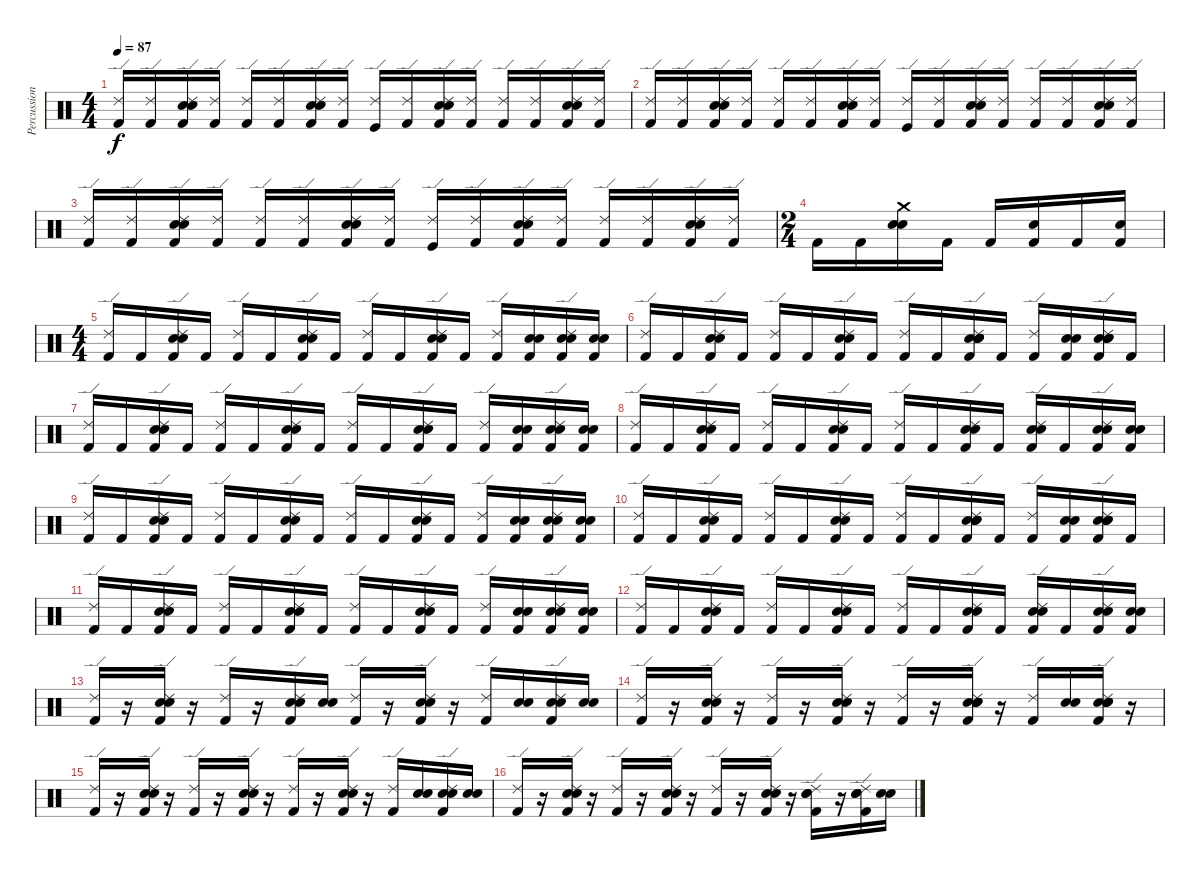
\track ("Percussion" "Percussion") {instrument percussion}
\staff {score}
\articulation defaults
\ts (4 4)
\tempo 87
\clef neutral
\ks c
("Ride (edge) 2" "Kick (hit) 2").16{dy f} ("Ride (edge) 2" "Kick (hit) 2").16 ("Ride (edge) 2" "Hand Clap (hit)" "Electric Snare (hit)" "Kick (hit) 2").16 ("Ride (edge) 2" "Kick (hit) 2").16 ("Ride (edge) 2" "Kick (hit) 2").16 ("Ride (edge) 2" "Kick (hit) 2").16 ("Ride (edge) 2" "Hand Clap (hit)" "Electric Snare (hit)" "Kick (hit) 2").16 ("Ride (edge) 2" "Kick (hit) 2").16 ("Ride (edge) 2" "Kick (hit)").16 ("Ride (edge) 2" "Kick (hit) 2").16 ("Ride (edge) 2" "Hand Clap (hit)" "Electric Snare (hit)" "Kick (hit) 2").16 ("Ride (edge) 2" "Kick (hit) 2").16 ("Ride (edge) 2" "Kick (hit) 2").16 ("Ride (edge) 2" "Kick (hit) 2").16 ("Ride (edge) 2" "Hand Clap (hit)" "Electric Snare (hit)" "Kick (hit) 2").16 ("Ride (edge) 2" "Kick (hit) 2").16 |
("Ride (edge) 2" "Kick (hit) 2").16 ("Ride (edge) 2" "Kick (hit) 2").16 ("Ride (edge) 2" "Hand Clap (hit)" "Electric Snare (hit)" "Kick (hit) 2").16 ("Ride (edge) 2" "Kick (hit) 2").16 ("Ride (edge) 2" "Kick (hit) 2").16 ("Ride (edge) 2" "Kick (hit) 2").16 ("Ride (edge) 2" "Hand Clap (hit)" "Electric Snare (hit)" "Kick (hit) 2").16 ("Ride (edge) 2" "Kick (hit) 2").16 ("Ride (edge) 2" "Kick (hit)").16 ("Ride (edge) 2" "Kick (hit) 2").16 ("Ride (edge) 2" "Hand Clap (hit)" "Electric Snare (hit)" "Kick (hit) 2").16 ("Ride (edge) 2" "Kick (hit) 2").16 ("Ride (edge) 2" "Kick (hit) 2").16 ("Ride (edge) 2" "Kick (hit) 2").16 ("Ride (edge) 2" "Hand Clap (hit)" "Electric Snare (hit)" "Kick (hit) 2").16 ("Ride (edge) 2" "Kick (hit) 2").16 |
("Ride (edge) 2" "Kick (hit) 2").16 ("Ride (edge) 2" "Kick (hit) 2").16 ("Ride (edge) 2" "Hand Clap (hit)" "Electric Snare (hit)" "Kick (hit) 2").16 ("Ride (edge) 2" "Kick (hit) 2").16 ("Ride (edge) 2" "Kick (hit) 2").16 ("Ride (edge) 2" "Kick (hit) 2").16 ("Ride (edge) 2" "Hand Clap (hit)" "Electric Snare (hit)" "Kick (hit) 2").16 ("Ride (edge) 2" "Kick (hit) 2").16 ("Ride (edge) 2" "Kick (hit)").16 ("Ride (edge) 2" "Kick (hit) 2").16 ("Ride (edge) 2" "Hand Clap (hit)" "Electric Snare (hit)" "Kick (hit) 2").16 ("Ride (edge) 2" "Kick (hit) 2").16 ("Ride (edge) 2" "Kick (hit) 2").16 ("Ride (edge) 2" "Kick (hit) 2").16 ("Ride (edge) 2" "Hand Clap (hit)" "Electric Snare (hit)" "Kick (hit) 2").16 ("Ride (edge) 2" "Kick (hit) 2").16 |
\ts (2 4)
"Kick (hit) 2".16 "Kick (hit) 2".16 ("Crash medium (hit)" "Hand Clap (hit)" "Electric Snare (hit)").16 "Kick (hit) 2".16 "Kick (hit) 2".16 ("Electric Snare (hit)" "Kick (hit) 2").16 "Kick (hit) 2".16 ("Electric Snare (hit)" "Kick (hit) 2").16 |
\ts (4 4)
("Ride (edge) 2" "Kick (hit) 2").16 "Kick (hit) 2".16 ("Ride (edge) 2" "Hand Clap (hit)" "Electric Snare (hit)" "Kick (hit) 2").16 "Kick (hit) 2".16 ("Ride (edge) 2" "Kick (hit) 2").16 "Kick (hit) 2".16 ("Ride (edge) 2" "Hand Clap (hit)" "Electric Snare (hit)" "Kick (hit) 2").16 "Kick (hit) 2".16 ("Ride (edge) 2" "Kick (hit) 2").16 "Kick (hit) 2".16 ("Ride (edge) 2" "Hand Clap (hit)" "Electric Snare (hit)" "Kick (hit) 2").16 "Kick (hit) 2".16 ("Ride (edge) 2" "Kick (hit) 2").16 ("Hand Clap (hit)" "Hand Clap (hit)" "Kick (hit) 2").16 ("Ride (edge) 2" "Hand Clap (hit)" "Electric Snare (hit)" "Kick (hit) 2").16 ("Hand Clap (hit)" "Hand Clap (hit)" "Kick (hit) 2").16 |
("Ride (edge) 2" "Kick (hit) 2").16 "Kick (hit) 2".16 ("Ride (edge) 2" "Hand Clap (hit)" "Electric Snare (hit)" "Kick (hit) 2").16 "Kick (hit) 2".16 ("Ride (edge) 2" "Kick (hit) 2").16 "Kick (hit) 2".16 ("Ride (edge) 2" "Hand Clap (hit)" "Electric Snare (hit)" "Kick (hit) 2").16 "Kick (hit) 2".16 ("Ride (edge) 2" "Kick (hit) 2").16 "Kick (hit) 2".16 ("Hand Clap (hit)" "Ride (edge) 2" "Hand Clap (hit)" "Hand Clap (hit)" "Electric Snare (hit)" "Kick (hit) 2").16 "Kick (hit) 2".16 ("Ride (edge) 2" "Kick (hit) 2").16 ("Hand Clap (hit)" "Hand Clap (hit)" "Kick (hit) 2").16 ("Hand Clap (hit)" "Ride (edge) 2" "Hand Clap (hit)" "Hand Clap (hit)" "Electric Snare (hit)" "Kick (hit) 2").16 "Kick (hit) 2".16 |
("Ride (edge) 2" "Kick (hit) 2").16 "Kick (hit) 2".16 ("Ride (edge) 2" "Hand Clap (hit)" "Electric Snare (hit)" "Kick (hit) 2").16 "Kick (hit) 2".16 ("Ride (edge) 2" "Kick (hit) 2").16 "Kick (hit) 2".16 ("Ride (edge) 2" "Hand Clap (hit)" "Electric Snare (hit)" "Kick (hit) 2").16 "Kick (hit) 2".16 ("Ride (edge) 2" "Kick (hit) 2").16 "Kick (hit) 2".16 ("Ride (edge) 2" "Hand Clap (hit)" "Electric Snare (hit)" "Kick (hit) 2").16 "Kick (hit) 2".16 ("Ride (edge) 2" "Kick (hit) 2").16 ("Hand Clap (hit)" "Hand Clap (hit)" "Kick (hit) 2").16 ("Ride (edge) 2" "Hand Clap (hit)" "Electric Snare (hit)" "Kick (hit) 2").16 ("Hand Clap (hit)" "Hand Clap (hit)" "Kick (hit) 2").16 |
("Ride (edge) 2" "Kick (hit) 2").16 "Kick (hit) 2".16 ("Ride (edge) 2" "Hand Clap (hit)" "Electric Snare (hit)" "Kick (hit) 2").16 "Kick (hit) 2".16 ("Ride (edge) 2" "Kick (hit) 2").16 "Kick (hit) 2".16 ("Ride (edge) 2" "Hand Clap (hit)" "Electric Snare (hit)" "Kick (hit) 2").16 "Kick (hit) 2".16 ("Ride (edge) 2" "Kick (hit) 2").16 "Kick (hit) 2".16 ("Ride (edge) 2" "Hand Clap (hit)" "Electric Snare (hit)" "Kick (hit) 2").16 "Kick (hit) 2".16 ("Hand Clap (hit)" "Ride (edge) 2" "Hand Clap (hit)" "Kick (hit) 2").16 "Kick (hit) 2".16 ("Ride (edge) 2" "Hand Clap (hit)" "Electric Snare (hit)" "Kick (hit) 2").16 ("Hand Clap (hit)" "Hand Clap (hit)" "Kick (hit) 2").16 |
("Ride (edge) 2" "Kick (hit) 2").16 "Kick (hit) 2".16 ("Ride (edge) 2" "Hand Clap (hit)" "Electric Snare (hit)" "Kick (hit) 2").16 "Kick (hit) 2".16 ("Ride (edge) 2" "Kick (hit) 2").16 "Kick (hit) 2".16 ("Ride (edge) 2" "Hand Clap (hit)" "Electric Snare (hit)" "Kick (hit) 2").16 "Kick (hit) 2".16 ("Ride (edge) 2" "Kick (hit) 2").16 "Kick (hit) 2".16 ("Ride (edge) 2" "Hand Clap (hit)" "Electric Snare (hit)" "Kick (hit) 2").16 "Kick (hit) 2".16 ("Ride (edge) 2" "Kick (hit) 2").16 ("Hand Clap (hit)" "Hand Clap (hit)" "Kick (hit) 2").16 ("Ride (edge) 2" "Hand Clap (hit)" "Electric Snare (hit)" "Kick (hit) 2").16 ("Hand Clap (hit)" "Hand Clap (hit)" "Kick (hit) 2").16 |
("Ride (edge) 2" "Kick (hit) 2").16 "Kick (hit) 2".16 ("Ride (edge) 2" "Hand Clap (hit)" "Electric Snare (hit)" "Kick (hit) 2").16 "Kick (hit) 2".16 ("Ride (edge) 2" "Kick (hit) 2").16 "Kick (hit) 2".16 ("Ride (edge) 2" "Hand Clap (hit)" "Electric Snare (hit)" "Kick (hit) 2").16 "Kick (hit) 2".16 ("Ride (edge) 2" "Kick (hit) 2").16 "Kick (hit) 2".16 ("Hand Clap (hit)" "Ride (edge) 2" "Hand Clap (hit)" "Hand Clap (hit)" "Electric Snare (hit)" "Kick (hit) 2").16 "Kick (hit) 2".16 ("Ride (edge) 2" "Kick (hit) 2").16 ("Hand Clap (hit)" "Hand Clap (hit)" "Kick (hit) 2").16 ("Hand Clap (hit)" "Ride (edge) 2" "Hand Clap (hit)" "Hand Clap (hit)" "Electric Snare (hit)" "Kick (hit) 2").16 "Kick (hit) 2".16 |
("Ride (edge) 2" "Kick (hit) 2").16 "Kick (hit) 2".16 ("Ride (edge) 2" "Hand Clap (hit)" "Electric Snare (hit)" "Kick (hit) 2").16 "Kick (hit) 2".16 ("Ride (edge) 2" "Kick (hit) 2").16 "Kick (hit) 2".16 ("Ride (edge) 2" "Hand Clap (hit)" "Electric Snare (hit)" "Kick (hit) 2").16 "Kick (hit) 2".16 ("Ride (edge) 2" "Kick (hit) 2").16 "Kick (hit) 2".16 ("Ride (edge) 2" "Hand Clap (hit)" "Electric Snare (hit)" "Kick (hit) 2").16 "Kick (hit) 2".16 ("Ride (edge) 2" "Kick (hit) 2").16 ("Hand Clap (hit)" "Hand Clap (hit)" "Kick (hit) 2").16 ("Ride (edge) 2" "Hand Clap (hit)" "Electric Snare (hit)" "Kick (hit) 2").16 ("Hand Clap (hit)" "Hand Clap (hit)" "Kick (hit) 2").16 |
("Ride (edge) 2" "Kick (hit) 2").16 "Kick (hit) 2".16 ("Ride (edge) 2" "Hand Clap (hit)" "Electric Snare (hit)" "Kick (hit) 2").16 "Kick (hit) 2".16 ("Ride (edge) 2" "Kick (hit) 2").16 "Kick (hit) 2".16 ("Ride (edge) 2" "Hand Clap (hit)" "Electric Snare (hit)" "Kick (hit) 2").16 "Kick (hit) 2".16 ("Ride (edge) 2" "Kick (hit) 2").16 "Kick (hit) 2".16 ("Ride (edge) 2" "Hand Clap (hit)" "Electric Snare (hit)" "Kick (hit) 2").16 "Kick (hit) 2".16 ("Hand Clap (hit)" "Ride (edge) 2" "Hand Clap (hit)" "Kick (hit) 2").16 "Kick (hit) 2".16 ("Ride (edge) 2" "Hand Clap (hit)" "Electric Snare (hit)" "Kick (hit) 2").16 ("Hand Clap (hit)" "Hand Clap (hit)" "Kick (hit) 2").16 |
("Ride (edge) 2" "Kick (hit) 2").16 r.16 ("Ride (edge) 2" "Hand Clap (hit)" "Electric Snare (hit)" "Kick (hit) 2").16 r.16 ("Ride (edge) 2" "Kick (hit) 2").16 r.16 ("Ride (edge) 2" "Hand Clap (hit)" "Electric Snare (hit)" "Kick (hit) 2").16 ("Hand Clap (hit)" "Hand Clap (hit)").16 ("Ride (edge) 2" "Kick (hit) 2").16 r.16 ("Ride (edge) 2" "Hand Clap (hit)" "Electric Snare (hit)" "Kick (hit) 2").16 r.16 ("Ride (edge) 2" "Kick (hit) 2").16 ("Hand Clap (hit)" "Hand Clap (hit)").16 ("Ride (edge) 2" "Hand Clap (hit)" "Electric Snare (hit)" "Kick (hit) 2").16 ("Hand Clap (hit)" "Hand Clap (hit)").16 |
("Ride (edge) 2" "Kick (hit) 2").16 r.16 ("Ride (edge) 2" "Hand Clap (hit)" "Electric Snare (hit)" "Kick (hit) 2").16 r.16 ("Ride (edge) 2" "Kick (hit) 2").16 r.16 ("Ride (edge) 2" "Hand Clap (hit)" "Electric Snare (hit)" "Kick (hit) 2").16 r.16 ("Ride (edge) 2" "Kick (hit) 2").16 r.16 ("Hand Clap (hit)" "Ride (edge) 2" "Hand Clap (hit)" "Hand Clap (hit)" "Electric Snare (hit)" "Kick (hit) 2").16 r.16 ("Ride (edge) 2" "Kick (hit) 2").16 ("Hand Clap (hit)" "Hand Clap (hit)").16 ("Hand Clap (hit)" "Ride (edge) 2" "Hand Clap (hit)" "Hand Clap (hit)" "Electric Snare (hit)" "Kick (hit) 2").16 r.16 |
("Ride (edge) 2" "Kick (hit) 2").16 r.16 ("Ride (edge) 2" "Hand Clap (hit)" "Electric Snare (hit)" "Kick (hit) 2").16 r.16 ("Ride (edge) 2" "Kick (hit) 2").16 r.16 ("Ride (edge) 2" "Hand Clap (hit)" "Electric Snare (hit)" "Kick (hit) 2").16 r.16 ("Ride (edge) 2" "Kick (hit) 2").16 r.16 ("Ride (edge) 2" "Hand Clap (hit)" "Electric Snare (hit)" "Kick (hit) 2").16 r.16 ("Ride (edge) 2" "Kick (hit) 2").16 ("Hand Clap (hit)" "Hand Clap (hit)").16 ("Ride (edge) 2" "Hand Clap (hit)" "Electric Snare (hit)" "Kick (hit) 2").16 ("Hand Clap (hit)" "Hand Clap (hit)").16 |
("Ride (edge) 2" "Kick (hit) 2").16 r.16 ("Ride (edge) 2" "Hand Clap (hit)" "Electric Snare (hit)" "Kick (hit) 2").16 r.16 ("Ride (edge) 2" "Kick (hit) 2").16 r.16 ("Ride (edge) 2" "Hand Clap (hit)" "Electric Snare (hit)" "Kick (hit) 2").16 r.16 ("Ride (edge) 2" "Kick (hit) 2").16 r.16 ("Ride (edge) 2" "Hand Clap (hit)" "Electric Snare (hit)" "Kick (hit) 2").16 r.16 ("Hand Clap (hit)" "Ride (edge) 2" "Hand Clap (hit)" "Kick (hit) 2").16 r.16 ("Ride (edge) 2" "Hand Clap (hit)" "Electric Snare (hit)" "Kick (hit) 2").16 ("Hand Clap (hit)" "Hand Clap (hit)").16
